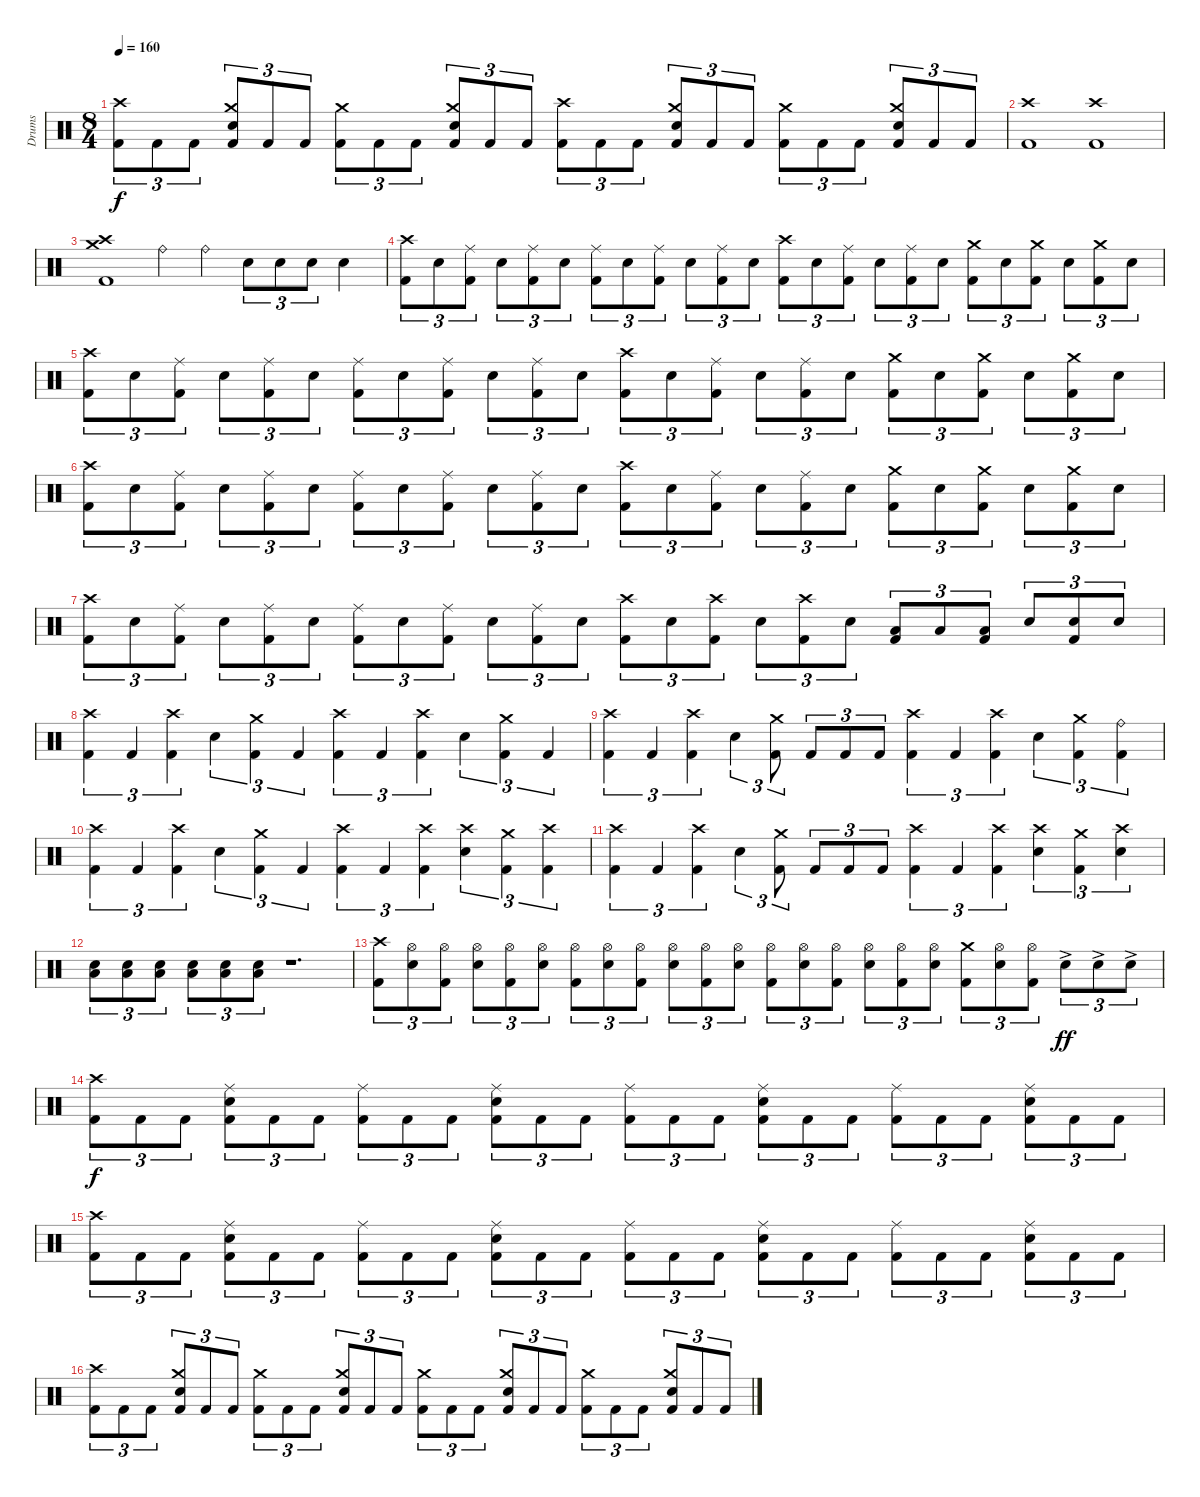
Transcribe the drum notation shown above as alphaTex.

\track ("Drums" "Drums") {instrument percussion}
\staff {score}
\articulation defaults
\ts (8 4)
\tempo 160
\clef neutral
\ks c
("Crash high (hit)" "Kick (hit) 2").8{tu (3 2) dy f} "Kick (hit) 2".8{tu (3 2)} "Kick (hit) 2".8{tu (3 2)} ("Crash medium (hit)" "Electric Snare (hit)" "Kick (hit) 2").8{tu (3 2)} "Kick (hit) 2".8{tu (3 2)} "Kick (hit) 2".8{tu (3 2)} ("Crash medium (hit)" "Kick (hit) 2").8{tu (3 2)} "Kick (hit) 2".8{tu (3 2)} "Kick (hit) 2".8{tu (3 2)} ("Crash medium (hit)" "Electric Snare (hit)" "Kick (hit) 2").8{tu (3 2)} "Kick (hit) 2".8{tu (3 2)} "Kick (hit) 2".8{tu (3 2)} ("Crash high (hit)" "Kick (hit) 2").8{tu (3 2)} "Kick (hit) 2".8{tu (3 2)} "Kick (hit) 2".8{tu (3 2)} ("Crash medium (hit)" "Electric Snare (hit)" "Kick (hit) 2").8{tu (3 2)} "Kick (hit) 2".8{tu (3 2)} "Kick (hit) 2".8{tu (3 2)} ("Crash medium (hit)" "Kick (hit) 2").8{tu (3 2)} "Kick (hit) 2".8{tu (3 2)} "Kick (hit) 2".8{tu (3 2)} ("Crash medium (hit)" "Electric Snare (hit)" "Kick (hit) 2").8{tu (3 2)} "Kick (hit) 2".8{tu (3 2)} "Kick (hit) 2".8{tu (3 2)} |
("Crash high (hit)" "Kick (hit) 2").1 ("Crash high (hit)" "Kick (hit) 2").1 |
("Crash high (hit)" "Crash medium (hit)" "Kick (hit) 2").1 "Ride (bell)".4 "Ride (bell)".4 "Electric Snare (hit)".8{tu (3 2)} "Electric Snare (hit)".8{tu (3 2)} "Electric Snare (hit)".8{tu (3 2)} "Electric Snare (hit)".4 |
("Crash high (hit)" "Kick (hit) 2").8{tu (3 2)} "Electric Snare (hit)".8{tu (3 2)} ("Ride (middle)" "Kick (hit) 2").8{tu (3 2)} "Electric Snare (hit)".8{tu (3 2)} ("Ride (middle)" "Kick (hit) 2").8{tu (3 2)} "Electric Snare (hit)".8{tu (3 2)} ("Ride (middle)" "Kick (hit) 2").8{tu (3 2)} "Electric Snare (hit)".8{tu (3 2)} ("Ride (middle)" "Kick (hit) 2").8{tu (3 2)} "Electric Snare (hit)".8{tu (3 2)} ("Ride (middle)" "Kick (hit) 2").8{tu (3 2)} "Electric Snare (hit)".8{tu (3 2)} ("Crash high (hit)" "Kick (hit) 2").8{tu (3 2)} "Electric Snare (hit)".8{tu (3 2)} ("Ride (middle)" "Kick (hit) 2").8{tu (3 2)} "Electric Snare (hit)".8{tu (3 2)} ("Ride (middle)" "Kick (hit) 2").8{tu (3 2)} "Electric Snare (hit)".8{tu (3 2)} ("Crash medium (hit)" "Kick (hit) 2").8{tu (3 2)} "Electric Snare (hit)".8{tu (3 2)} ("Crash medium (hit)" "Kick (hit) 2").8{tu (3 2)} "Electric Snare (hit)".8{tu (3 2)} ("Crash medium (hit)" "Kick (hit) 2").8{tu (3 2)} "Electric Snare (hit)".8{tu (3 2)} |
("Crash high (hit)" "Kick (hit) 2").8{tu (3 2)} "Electric Snare (hit)".8{tu (3 2)} ("Ride (middle)" "Kick (hit) 2").8{tu (3 2)} "Electric Snare (hit)".8{tu (3 2)} ("Ride (middle)" "Kick (hit) 2").8{tu (3 2)} "Electric Snare (hit)".8{tu (3 2)} ("Ride (middle)" "Kick (hit) 2").8{tu (3 2)} "Electric Snare (hit)".8{tu (3 2)} ("Ride (middle)" "Kick (hit) 2").8{tu (3 2)} "Electric Snare (hit)".8{tu (3 2)} ("Ride (middle)" "Kick (hit) 2").8{tu (3 2)} "Electric Snare (hit)".8{tu (3 2)} ("Crash high (hit)" "Kick (hit) 2").8{tu (3 2)} "Electric Snare (hit)".8{tu (3 2)} ("Ride (middle)" "Kick (hit) 2").8{tu (3 2)} "Electric Snare (hit)".8{tu (3 2)} ("Ride (middle)" "Kick (hit) 2").8{tu (3 2)} "Electric Snare (hit)".8{tu (3 2)} ("Crash medium (hit)" "Kick (hit) 2").8{tu (3 2)} "Electric Snare (hit)".8{tu (3 2)} ("Crash medium (hit)" "Kick (hit) 2").8{tu (3 2)} "Electric Snare (hit)".8{tu (3 2)} ("Crash medium (hit)" "Kick (hit) 2").8{tu (3 2)} "Electric Snare (hit)".8{tu (3 2)} |
("Crash high (hit)" "Kick (hit) 2").8{tu (3 2)} "Electric Snare (hit)".8{tu (3 2)} ("Ride (middle)" "Kick (hit) 2").8{tu (3 2)} "Electric Snare (hit)".8{tu (3 2)} ("Ride (middle)" "Kick (hit) 2").8{tu (3 2)} "Electric Snare (hit)".8{tu (3 2)} ("Ride (middle)" "Kick (hit) 2").8{tu (3 2)} "Electric Snare (hit)".8{tu (3 2)} ("Ride (middle)" "Kick (hit) 2").8{tu (3 2)} "Electric Snare (hit)".8{tu (3 2)} ("Ride (middle)" "Kick (hit) 2").8{tu (3 2)} "Electric Snare (hit)".8{tu (3 2)} ("Crash high (hit)" "Kick (hit) 2").8{tu (3 2)} "Electric Snare (hit)".8{tu (3 2)} ("Ride (middle)" "Kick (hit) 2").8{tu (3 2)} "Electric Snare (hit)".8{tu (3 2)} ("Ride (middle)" "Kick (hit) 2").8{tu (3 2)} "Electric Snare (hit)".8{tu (3 2)} ("Crash medium (hit)" "Kick (hit) 2").8{tu (3 2)} "Electric Snare (hit)".8{tu (3 2)} ("Crash medium (hit)" "Kick (hit) 2").8{tu (3 2)} "Electric Snare (hit)".8{tu (3 2)} ("Crash medium (hit)" "Kick (hit) 2").8{tu (3 2)} "Electric Snare (hit)".8{tu (3 2)} |
("Crash high (hit)" "Kick (hit) 2").8{tu (3 2)} "Electric Snare (hit)".8{tu (3 2)} ("Ride (middle)" "Kick (hit) 2").8{tu (3 2)} "Electric Snare (hit)".8{tu (3 2)} ("Ride (middle)" "Kick (hit) 2").8{tu (3 2)} "Electric Snare (hit)".8{tu (3 2)} ("Ride (middle)" "Kick (hit) 2").8{tu (3 2)} "Electric Snare (hit)".8{tu (3 2)} ("Ride (middle)" "Kick (hit) 2").8{tu (3 2)} "Electric Snare (hit)".8{tu (3 2)} ("Ride (middle)" "Kick (hit) 2").8{tu (3 2)} "Electric Snare (hit)".8{tu (3 2)} ("Crash high (hit)" "Kick (hit) 2").8{tu (3 2)} "Electric Snare (hit)".8{tu (3 2)} ("Crash high (hit)" "Kick (hit) 2").8{tu (3 2)} "Electric Snare (hit)".8{tu (3 2)} ("Crash high (hit)" "Kick (hit) 2").8{tu (3 2)} "Electric Snare (hit)".8{tu (3 2)} ("Low Tom (hit)" "Kick (hit) 2").8{tu (3 2)} "Low Tom (hit)".8{tu (3 2)} ("Low Tom (hit)" "Kick (hit) 2").8{tu (3 2)} "Electric Snare (hit)".8{tu (3 2)} ("Electric Snare (hit)" "Kick (hit) 2").8{tu (3 2)} "Electric Snare (hit)".8{tu (3 2)} |
("Crash high (hit)" "Kick (hit) 2").4{tu (3 2)} "Kick (hit) 2".4{tu (3 2)} ("Crash high (hit)" "Kick (hit) 2").4{tu (3 2)} "Electric Snare (hit)".4{tu (3 2)} ("Crash medium (hit)" "Kick (hit) 2").4{tu (3 2)} "Kick (hit) 2".4{tu (3 2)} ("Crash high (hit)" "Kick (hit) 2").4{tu (3 2)} "Kick (hit) 2".4{tu (3 2)} ("Crash high (hit)" "Kick (hit) 2").4{tu (3 2)} "Electric Snare (hit)".4{tu (3 2)} ("Crash medium (hit)" "Kick (hit) 2").4{tu (3 2)} "Kick (hit) 2".4{tu (3 2)} |
("Crash high (hit)" "Kick (hit) 2").4{tu (3 2)} "Kick (hit) 2".4{tu (3 2)} ("Crash high (hit)" "Kick (hit) 2").4{tu (3 2)} "Electric Snare (hit)".4{tu (3 2)} ("Crash medium (hit)" "Kick (hit) 2").8{tu (3 2)} "Kick (hit) 2".8{tu (3 2)} "Kick (hit) 2".8{tu (3 2)} "Kick (hit) 2".8{tu (3 2)} ("Crash high (hit)" "Kick (hit) 2").4{tu (3 2)} "Kick (hit) 2".4{tu (3 2)} ("Crash high (hit)" "Kick (hit) 2").4{tu (3 2)} "Electric Snare (hit)".4{tu (3 2)} ("Crash medium (hit)" "Kick (hit) 2").4{tu (3 2)} ("Ride (bell)" "Kick (hit) 2").4{tu (3 2)} |
("Crash high (hit)" "Kick (hit) 2").4{tu (3 2)} "Kick (hit) 2".4{tu (3 2)} ("Crash high (hit)" "Kick (hit) 2").4{tu (3 2)} "Electric Snare (hit)".4{tu (3 2)} ("Crash medium (hit)" "Kick (hit) 2").4{tu (3 2)} "Kick (hit) 2".4{tu (3 2)} ("Crash high (hit)" "Kick (hit) 2").4{tu (3 2)} "Kick (hit) 2".4{tu (3 2)} ("Crash high (hit)" "Kick (hit) 2").4{tu (3 2)} ("Crash high (hit)" "Electric Snare (hit)").4{tu (3 2)} ("Crash medium (hit)" "Kick (hit) 2").4{tu (3 2)} ("Crash high (hit)" "Kick (hit) 2").4{tu (3 2)} |
("Crash high (hit)" "Kick (hit) 2").4{tu (3 2)} "Kick (hit) 2".4{tu (3 2)} ("Crash high (hit)" "Kick (hit) 2").4{tu (3 2)} "Electric Snare (hit)".4{tu (3 2)} ("Crash medium (hit)" "Kick (hit) 2").8{tu (3 2)} "Kick (hit) 2".8{tu (3 2)} "Kick (hit) 2".8{tu (3 2)} "Kick (hit) 2".8{tu (3 2)} ("Crash high (hit)" "Kick (hit) 2").4{tu (3 2)} "Kick (hit) 2".4{tu (3 2)} ("Crash high (hit)" "Kick (hit) 2").4{tu (3 2)} ("Crash high (hit)" "Electric Snare (hit)").4{tu (3 2)} ("Crash medium (hit)" "Kick (hit) 2").4{tu (3 2)} ("Crash high (hit)" "Electric Snare (hit)").4{tu (3 2)} |
("Electric Snare (hit)" "Low Floor Tom (hit)").8{tu (3 2)} ("Electric Snare (hit)" "Low Floor Tom (hit)").8{tu (3 2)} ("Electric Snare (hit)" "Low Floor Tom (hit)").8{tu (3 2)} ("Electric Snare (hit)" "Low Floor Tom (hit)").8{tu (3 2)} ("Electric Snare (hit)" "Low Floor Tom (hit)").8{tu (3 2)} ("Electric Snare (hit)" "Low Floor Tom (hit)").8{tu (3 2)} r.1{d} |
("Crash high (hit)" "Kick (hit) 2").8{tu (3 2)} ("Hi-Hat (open)" "Electric Snare (hit)").8{tu (3 2)} ("Hi-Hat (open)" "Kick (hit) 2").8{tu (3 2)} ("Hi-Hat (open)" "Electric Snare (hit)").8{tu (3 2)} ("Hi-Hat (open)" "Kick (hit) 2").8{tu (3 2)} ("Hi-Hat (open)" "Electric Snare (hit)").8{tu (3 2)} ("Hi-Hat (open)" "Kick (hit) 2").8{tu (3 2)} ("Hi-Hat (open)" "Electric Snare (hit)").8{tu (3 2)} ("Hi-Hat (open)" "Kick (hit) 2").8{tu (3 2)} ("Hi-Hat (open)" "Electric Snare (hit)").8{tu (3 2)} ("Hi-Hat (open)" "Kick (hit) 2").8{tu (3 2)} ("Hi-Hat (open)" "Electric Snare (hit)").8{tu (3 2)} ("Hi-Hat (open)" "Kick (hit) 2").8{tu (3 2)} ("Hi-Hat (open)" "Electric Snare (hit)").8{tu (3 2)} ("Hi-Hat (open)" "Kick (hit) 2").8{tu (3 2)} ("Hi-Hat (open)" "Electric Snare (hit)").8{tu (3 2)} ("Hi-Hat (open)" "Kick (hit) 2").8{tu (3 2)} ("Hi-Hat (open)" "Electric Snare (hit)").8{tu (3 2)} ("Crash medium (hit)" "Kick (hit) 2").8{tu (3 2)} ("Hi-Hat (open)" "Electric Snare (hit)").8{tu (3 2)} ("Hi-Hat (open)" "Kick (hit) 2").8{tu (3 2)} "Electric Snare (hit)"{ac}.8{tu (3 2) dy ff} "Electric Snare (hit)"{ac}.8{tu (3 2)} "Electric Snare (hit)"{ac}.8{tu (3 2)} |
("Crash high (hit)" "Kick (hit) 2").8{tu (3 2) dy f} "Kick (hit) 2".8{tu (3 2)} "Kick (hit) 2".8{tu (3 2)} ("Ride (middle)" "Electric Snare (hit)" "Kick (hit) 2").8{tu (3 2)} "Kick (hit) 2".8{tu (3 2)} "Kick (hit) 2".8{tu (3 2)} ("Ride (middle)" "Kick (hit) 2").8{tu (3 2)} "Kick (hit) 2".8{tu (3 2)} "Kick (hit) 2".8{tu (3 2)} ("Ride (middle)" "Electric Snare (hit)" "Kick (hit) 2").8{tu (3 2)} "Kick (hit) 2".8{tu (3 2)} "Kick (hit) 2".8{tu (3 2)} ("Ride (middle)" "Kick (hit) 2").8{tu (3 2)} "Kick (hit) 2".8{tu (3 2)} "Kick (hit) 2".8{tu (3 2)} ("Ride (middle)" "Electric Snare (hit)" "Kick (hit) 2").8{tu (3 2)} "Kick (hit) 2".8{tu (3 2)} "Kick (hit) 2".8{tu (3 2)} ("Ride (middle)" "Kick (hit) 2").8{tu (3 2)} "Kick (hit) 2".8{tu (3 2)} "Kick (hit) 2".8{tu (3 2)} ("Ride (middle)" "Electric Snare (hit)" "Kick (hit) 2").8{tu (3 2)} "Kick (hit) 2".8{tu (3 2)} "Kick (hit) 2".8{tu (3 2)} |
("Crash high (hit)" "Kick (hit) 2").8{tu (3 2)} "Kick (hit) 2".8{tu (3 2)} "Kick (hit) 2".8{tu (3 2)} ("Ride (middle)" "Electric Snare (hit)" "Kick (hit) 2").8{tu (3 2)} "Kick (hit) 2".8{tu (3 2)} "Kick (hit) 2".8{tu (3 2)} ("Ride (middle)" "Kick (hit) 2").8{tu (3 2)} "Kick (hit) 2".8{tu (3 2)} "Kick (hit) 2".8{tu (3 2)} ("Ride (middle)" "Electric Snare (hit)" "Kick (hit) 2").8{tu (3 2)} "Kick (hit) 2".8{tu (3 2)} "Kick (hit) 2".8{tu (3 2)} ("Ride (middle)" "Kick (hit) 2").8{tu (3 2)} "Kick (hit) 2".8{tu (3 2)} "Kick (hit) 2".8{tu (3 2)} ("Ride (middle)" "Electric Snare (hit)" "Kick (hit) 2").8{tu (3 2)} "Kick (hit) 2".8{tu (3 2)} "Kick (hit) 2".8{tu (3 2)} ("Ride (middle)" "Kick (hit) 2").8{tu (3 2)} "Kick (hit) 2".8{tu (3 2)} "Kick (hit) 2".8{tu (3 2)} ("Ride (middle)" "Electric Snare (hit)" "Kick (hit) 2").8{tu (3 2)} "Kick (hit) 2".8{tu (3 2)} "Kick (hit) 2".8{tu (3 2)} |
("Crash high (hit)" "Kick (hit) 2").8{tu (3 2)} "Kick (hit) 2".8{tu (3 2)} "Kick (hit) 2".8{tu (3 2)} ("Crash medium (hit)" "Electric Snare (hit)" "Kick (hit) 2").8{tu (3 2)} "Kick (hit) 2".8{tu (3 2)} "Kick (hit) 2".8{tu (3 2)} ("Crash medium (hit)" "Kick (hit) 2").8{tu (3 2)} "Kick (hit) 2".8{tu (3 2)} "Kick (hit) 2".8{tu (3 2)} ("Crash medium (hit)" "Electric Snare (hit)" "Kick (hit) 2").8{tu (3 2)} "Kick (hit) 2".8{tu (3 2)} "Kick (hit) 2".8{tu (3 2)} ("Crash medium (hit)" "Kick (hit) 2").8{tu (3 2)} "Kick (hit) 2".8{tu (3 2)} "Kick (hit) 2".8{tu (3 2)} ("Crash medium (hit)" "Electric Snare (hit)" "Kick (hit) 2").8{tu (3 2)} "Kick (hit) 2".8{tu (3 2)} "Kick (hit) 2".8{tu (3 2)} ("Crash medium (hit)" "Kick (hit) 2").8{tu (3 2)} "Kick (hit) 2".8{tu (3 2)} "Kick (hit) 2".8{tu (3 2)} ("Crash medium (hit)" "Electric Snare (hit)" "Kick (hit) 2").8{tu (3 2)} "Kick (hit) 2".8{tu (3 2)} "Kick (hit) 2".8{tu (3 2)}
